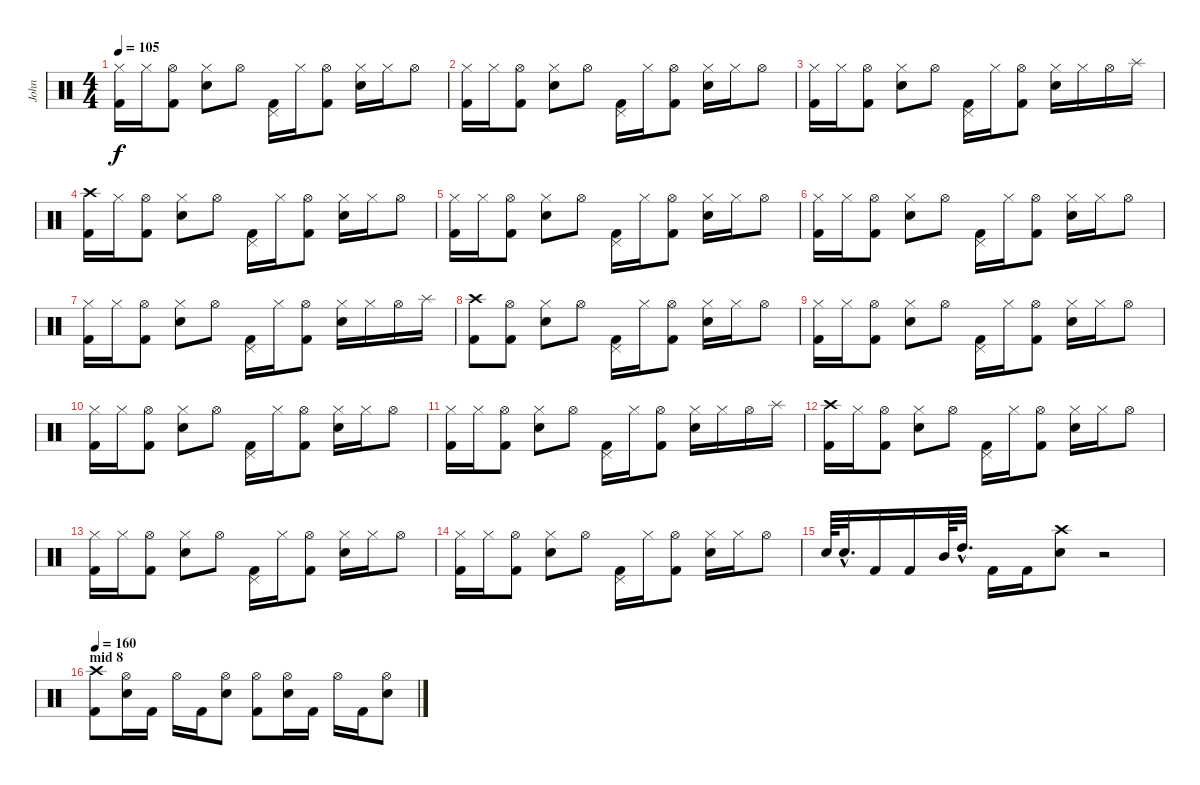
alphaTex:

\track ("John" "John") {instrument percussion}
\staff {score}
\articulation defaults
\ts (4 4)
\tempo 105
\clef neutral
\ks c
("Hi-Hat (closed)" "Kick (hit) 2").16{dy f} "Hi-Hat (closed)".16 ("Hi-Hat (open)" "Kick (hit) 2").8 ("Hi-Hat (closed)" "Electric Snare (hit)").8 "Hi-Hat (open)".8 ("Pedal Hi-Hat (hit)" "Kick (hit) 2").16 "Hi-Hat (closed)".16 ("Hi-Hat (open)" "Kick (hit) 2").8 ("Hi-Hat (closed)" "Electric Snare (hit)").16 "Hi-Hat (closed)".16 "Hi-Hat (open)".8 |
("Hi-Hat (closed)" "Kick (hit) 2").16 "Hi-Hat (closed)".16 ("Hi-Hat (open)" "Kick (hit) 2").8 ("Hi-Hat (closed)" "Electric Snare (hit)").8 "Hi-Hat (open)".8 ("Pedal Hi-Hat (hit)" "Kick (hit) 2").16 "Hi-Hat (closed)".16 ("Hi-Hat (open)" "Kick (hit) 2").8 ("Hi-Hat (closed)" "Electric Snare (hit)").16 "Hi-Hat (closed)".16 "Hi-Hat (open)".8 |
("Hi-Hat (closed)" "Kick (hit) 2").16 "Hi-Hat (closed)".16 ("Hi-Hat (open)" "Kick (hit) 2").8 ("Hi-Hat (closed)" "Electric Snare (hit)").8 "Hi-Hat (open)".8 ("Pedal Hi-Hat (hit)" "Kick (hit) 2").16 "Hi-Hat (closed)".16 ("Hi-Hat (open)" "Kick (hit) 2").8 ("Hi-Hat (closed)" "Electric Snare (hit)").16 "Hi-Hat (closed)".16 "Hi-Hat (open)".16 "Splash (hit)".16 |
("Crash high (hit)" "Kick (hit) 2").16 "Hi-Hat (closed)".16 ("Hi-Hat (open)" "Kick (hit) 2").8 ("Hi-Hat (closed)" "Electric Snare (hit)").8 "Hi-Hat (open)".8 ("Pedal Hi-Hat (hit)" "Kick (hit) 2").16 "Hi-Hat (closed)".16 ("Hi-Hat (open)" "Kick (hit) 2").8 ("Hi-Hat (closed)" "Electric Snare (hit)").16 "Hi-Hat (closed)".16 "Hi-Hat (open)".8 |
("Hi-Hat (closed)" "Kick (hit) 2").16 "Hi-Hat (closed)".16 ("Hi-Hat (open)" "Kick (hit) 2").8 ("Hi-Hat (closed)" "Electric Snare (hit)").8 "Hi-Hat (open)".8 ("Pedal Hi-Hat (hit)" "Kick (hit) 2").16 "Hi-Hat (closed)".16 ("Hi-Hat (open)" "Kick (hit) 2").8 ("Hi-Hat (closed)" "Electric Snare (hit)").16 "Hi-Hat (closed)".16 "Hi-Hat (open)".8 |
("Hi-Hat (closed)" "Kick (hit) 2").16 "Hi-Hat (closed)".16 ("Hi-Hat (open)" "Kick (hit) 2").8 ("Hi-Hat (closed)" "Electric Snare (hit)").8 "Hi-Hat (open)".8 ("Pedal Hi-Hat (hit)" "Kick (hit) 2").16 "Hi-Hat (closed)".16 ("Hi-Hat (open)" "Kick (hit) 2").8 ("Hi-Hat (closed)" "Electric Snare (hit)").16 "Hi-Hat (closed)".16 "Hi-Hat (open)".8 |
("Hi-Hat (closed)" "Kick (hit) 2").16 "Hi-Hat (closed)".16 ("Hi-Hat (open)" "Kick (hit) 2").8 ("Hi-Hat (closed)" "Electric Snare (hit)").8 "Hi-Hat (open)".8 ("Pedal Hi-Hat (hit)" "Kick (hit) 2").16 "Hi-Hat (closed)".16 ("Hi-Hat (open)" "Kick (hit) 2").8 ("Hi-Hat (closed)" "Electric Snare (hit)").16 "Hi-Hat (closed)".16 "Hi-Hat (open)".16 "Splash (hit)".16 |
("Crash high (hit)" "Kick (hit) 2").8 ("Hi-Hat (open)" "Kick (hit) 2").8 ("Hi-Hat (closed)" "Electric Snare (hit)").8 "Hi-Hat (open)".8 ("Pedal Hi-Hat (hit)" "Kick (hit) 2").16 "Hi-Hat (closed)".16 ("Hi-Hat (open)" "Kick (hit) 2").8 ("Hi-Hat (closed)" "Electric Snare (hit)").16 "Hi-Hat (closed)".16 "Hi-Hat (open)".8 |
("Hi-Hat (closed)" "Kick (hit) 2").16 "Hi-Hat (closed)".16 ("Hi-Hat (open)" "Kick (hit) 2").8 ("Hi-Hat (closed)" "Electric Snare (hit)").8 "Hi-Hat (open)".8 ("Pedal Hi-Hat (hit)" "Kick (hit) 2").16 "Hi-Hat (closed)".16 ("Hi-Hat (open)" "Kick (hit) 2").8 ("Hi-Hat (closed)" "Electric Snare (hit)").16 "Hi-Hat (closed)".16 "Hi-Hat (open)".8 |
("Hi-Hat (closed)" "Kick (hit) 2").16 "Hi-Hat (closed)".16 ("Hi-Hat (open)" "Kick (hit) 2").8 ("Hi-Hat (closed)" "Electric Snare (hit)").8 "Hi-Hat (open)".8 ("Pedal Hi-Hat (hit)" "Kick (hit) 2").16 "Hi-Hat (closed)".16 ("Hi-Hat (open)" "Kick (hit) 2").8 ("Hi-Hat (closed)" "Electric Snare (hit)").16 "Hi-Hat (closed)".16 "Hi-Hat (open)".8 |
("Hi-Hat (closed)" "Kick (hit) 2").16 "Hi-Hat (closed)".16 ("Hi-Hat (open)" "Kick (hit) 2").8 ("Hi-Hat (closed)" "Electric Snare (hit)").8 "Hi-Hat (open)".8 ("Pedal Hi-Hat (hit)" "Kick (hit) 2").16 "Hi-Hat (closed)".16 ("Hi-Hat (open)" "Kick (hit) 2").8 ("Hi-Hat (closed)" "Electric Snare (hit)").16 "Hi-Hat (closed)".16 "Hi-Hat (open)".16 "Splash (hit)".16 |
("Crash high (hit)" "Kick (hit) 2").16 "Hi-Hat (closed)".16 ("Hi-Hat (open)" "Kick (hit) 2").8 ("Hi-Hat (closed)" "Electric Snare (hit)").8 "Hi-Hat (open)".8 ("Pedal Hi-Hat (hit)" "Kick (hit) 2").16 "Hi-Hat (closed)".16 ("Hi-Hat (open)" "Kick (hit) 2").8 ("Hi-Hat (closed)" "Electric Snare (hit)").16 "Hi-Hat (closed)".16 "Hi-Hat (open)".8 |
("Hi-Hat (closed)" "Kick (hit) 2").16 "Hi-Hat (closed)".16 ("Hi-Hat (open)" "Kick (hit) 2").8 ("Hi-Hat (closed)" "Electric Snare (hit)").8 "Hi-Hat (open)".8 ("Pedal Hi-Hat (hit)" "Kick (hit) 2").16 "Hi-Hat (closed)".16 ("Hi-Hat (open)" "Kick (hit) 2").8 ("Hi-Hat (closed)" "Electric Snare (hit)").16 "Hi-Hat (closed)".16 "Hi-Hat (open)".8 |
("Hi-Hat (closed)" "Kick (hit) 2").16 "Hi-Hat (closed)".16 ("Hi-Hat (open)" "Kick (hit) 2").8 ("Hi-Hat (closed)" "Electric Snare (hit)").8 "Hi-Hat (open)".8 ("Pedal Hi-Hat (hit)" "Kick (hit) 2").16 "Hi-Hat (closed)".16 ("Hi-Hat (open)" "Kick (hit) 2").8 ("Hi-Hat (closed)" "Electric Snare (hit)").16 "Hi-Hat (closed)".16 "Hi-Hat (open)".8 |
"Electric Snare (hit)".64 "Electric Snare (hit)"{hac}.32{d} "Kick (hit) 2".16 "Kick (hit) 2".16 "Mid Tom (hit)".64 "High Tom (hit)"{hac}.32{d} "Kick (hit) 2".16 "Kick (hit) 2".16 ("Crash high (hit)" "Electric Snare (hit)").8 r.2 |
\section ("" "mid 8")
\tempo 160
("Crash high (hit)" "Kick (hit) 2").8 ("Hi-Hat (open)" "Electric Snare (hit)").16 "Kick (hit) 2".16 "Hi-Hat (open)".16 "Kick (hit) 2".16 ("Hi-Hat (open)" "Electric Snare (hit)").8 ("Hi-Hat (open)" "Kick (hit) 2").8 ("Hi-Hat (open)" "Electric Snare (hit)").16 "Kick (hit) 2".16 "Hi-Hat (open)".16 "Kick (hit) 2".16 ("Hi-Hat (open)" "Electric Snare (hit)").8
